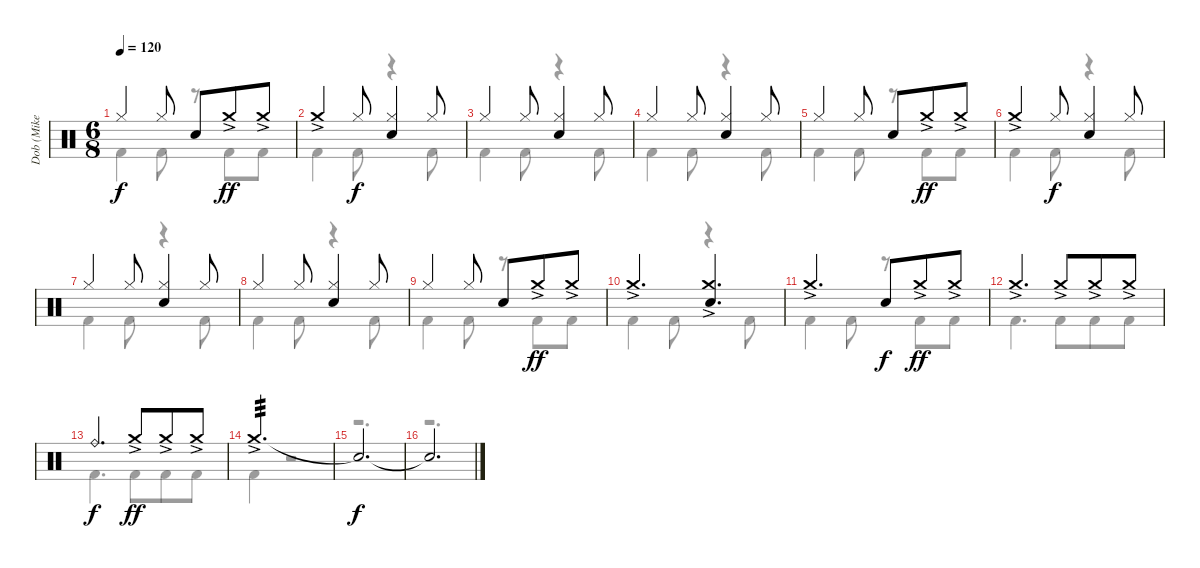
\track ("Dob (Mike Terrana)" "Dob (Mike ") {instrument percussion}
\staff {score}
\articulation defaults
\voice
\ts (6 8)
\tempo 120
\clef neutral
\ks c "Hi-Hat (closed)".4{dy f} "Hi-Hat (closed)".8 "Electric Snare (hit)".8 "Crash medium (hit)"{ac}.8{dy ff} "Crash medium (hit)"{ac}.8
|
"Crash medium (hit)"{ac}.4 "Hi-Hat (closed)".8{dy f} ("Hi-Hat (closed)" "Electric Snare (hit)").4 "Hi-Hat (closed)".8 |
"Hi-Hat (closed)".4 "Hi-Hat (closed)".8 ("Hi-Hat (closed)" "Electric Snare (hit)").4 "Hi-Hat (closed)".8 |
"Hi-Hat (closed)".4 "Hi-Hat (closed)".8 ("Hi-Hat (closed)" "Electric Snare (hit)").4 "Hi-Hat (closed)".8 |
"Hi-Hat (closed)".4 "Hi-Hat (closed)".8 "Electric Snare (hit)".8 "Crash medium (hit)"{ac}.8{dy ff} "Crash medium (hit)"{ac}.8 |
"Crash medium (hit)"{ac}.4 "Hi-Hat (closed)".8{dy f} ("Hi-Hat (closed)" "Electric Snare (hit)").4 "Hi-Hat (closed)".8 |
"Hi-Hat (closed)".4 "Hi-Hat (closed)".8 ("Hi-Hat (closed)" "Electric Snare (hit)").4 "Hi-Hat (closed)".8 |
"Hi-Hat (closed)".4 "Hi-Hat (closed)".8 ("Hi-Hat (closed)" "Electric Snare (hit)").4 "Hi-Hat (closed)".8 |
"Hi-Hat (closed)".4 "Hi-Hat (closed)".8 "Electric Snare (hit)".8 "Crash medium (hit)"{ac}.8{dy ff} "Crash medium (hit)"{ac}.8 |
"Crash medium (hit)"{ac}.4{d} ("Crash medium (hit)"{ac} "Electric Snare (hit)").4{d} |
"Crash medium (hit)"{ac}.4{d} "Electric Snare (hit)".8{dy f} "Crash medium (hit)"{ac}.8{dy ff} "Crash medium (hit)"{ac}.8 |
"Crash medium (hit)"{ac}.4{d} "Crash medium (hit)"{ac}.8 "Crash medium (hit)"{ac}.8 "Crash medium (hit)"{ac}.8 |
"Ride (bell)".4{d dy f} "Crash medium (hit)"{ac}.8{dy ff} "Crash medium (hit)"{ac}.8 "Crash medium (hit)"{ac}.8 |
"Crash medium (hit)"{ac}.2{d tp 3 volume 7} |
"Snare (hit)"{t}.2{d dy f} |
"Snare (hit)"{t}.2{d}
\voice
\clef neutral
\ottava regular
\simile none
\ks c "Kick (hit) 2".4{dy f} "Kick (hit) 2".8
r.8 "Kick (hit) 2".8 "Kick (hit) 2".8 |
"Kick (hit) 2".4 "Kick (hit) 2".8 r.4 "Kick (hit) 2".8 |
"Kick (hit) 2".4 "Kick (hit) 2".8 r.4 "Kick (hit) 2".8 |
"Kick (hit) 2".4 "Kick (hit) 2".8 r.4 "Kick (hit) 2".8 |
"Kick (hit) 2".4 "Kick (hit) 2".8 r.8 "Kick (hit) 2".8 "Kick (hit) 2".8 |
"Kick (hit) 2".4 "Kick (hit) 2".8 r.4 "Kick (hit) 2".8 |
"Kick (hit) 2".4 "Kick (hit) 2".8 r.4 "Kick (hit) 2".8 |
"Kick (hit) 2".4 "Kick (hit) 2".8 r.4 "Kick (hit) 2".8 |
"Kick (hit) 2".4 "Kick (hit) 2".8 r.8 "Kick (hit) 2".8 "Kick (hit) 2".8 |
"Kick (hit) 2".4 "Kick (hit) 2".8 r.4 "Kick (hit) 2".8 |
"Kick (hit) 2".4 "Kick (hit) 2".8 r.8 "Kick (hit) 2".8 "Kick (hit) 2".8 |
"Kick (hit) 2".4{d} "Kick (hit) 2".8 "Kick (hit) 2".8 "Kick (hit) 2".8 |
"Kick (hit) 2".4{d} "Kick (hit) 2".8 "Kick (hit) 2".8 "Kick (hit) 2".8 |
"Kick (hit) 2".4 r.2 |
r.2{d} |
r.2{d}
